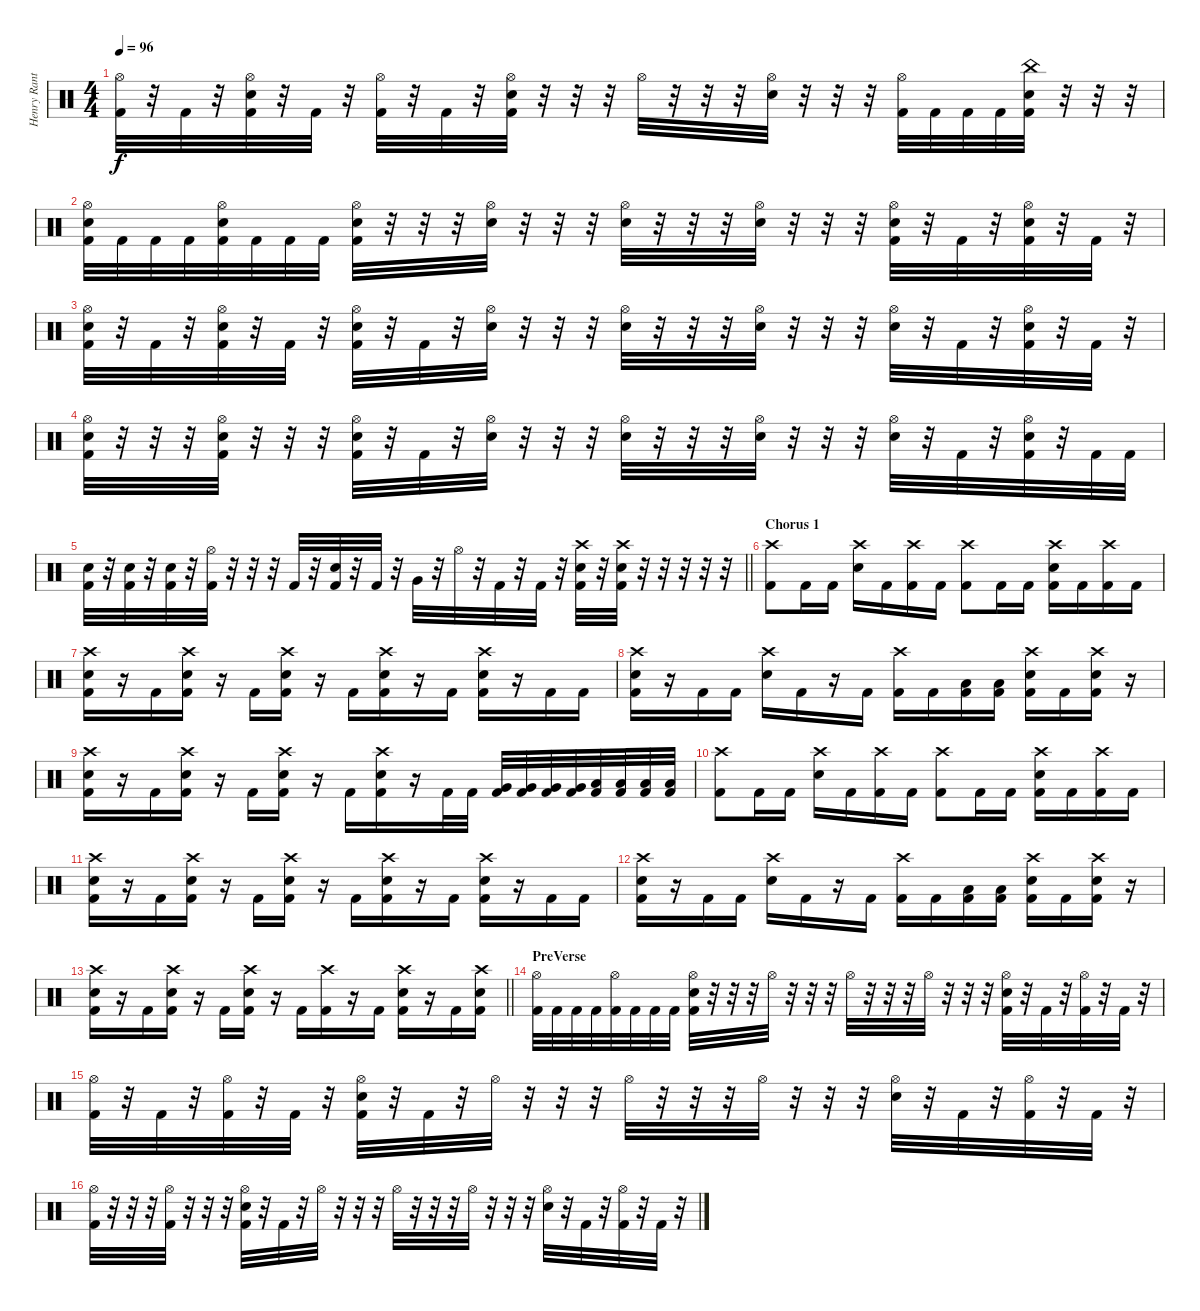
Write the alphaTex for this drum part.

\track ("Henry Ranta (Drumms)" "Henry Rant") {instrument percussion}
\staff {score}
\articulation defaults
\ts (4 4)
\tempo 96
\clef neutral
\ks c
("Hi-Hat (open)" "Kick (hit) 2").32{dy f} r.32 "Kick (hit) 2".32 r.32 ("Hi-Hat (open)" "Snare (hit) 2" "Kick (hit) 2").32 r.32 "Kick (hit) 2".32 r.32 ("Hi-Hat (open)" "Kick (hit) 2").32 r.32 "Kick (hit) 2".32 r.32 ("Hi-Hat (open)" "Snare (hit) 2" "Kick (hit) 2").32 r.32 r.32 r.32 "Hi-Hat (open)".32 r.32 r.32 r.32 ("Hi-Hat (open)" "Snare (hit) 2").32 r.32 r.32 r.32 ("Hi-Hat (open)" "Kick (hit) 2").32 "Kick (hit) 2".32 "Kick (hit) 2".32 "Kick (hit) 2".32 ("China (hit)" "Snare (hit) 2" "Kick (hit) 2").32 r.32 r.32 r.32 |
("Hi-Hat (open)" "Snare (hit) 2" "Kick (hit) 2").32 "Kick (hit) 2".32 "Kick (hit) 2".32 "Kick (hit) 2".32 ("Hi-Hat (open)" "Snare (hit) 2" "Kick (hit) 2").32 "Kick (hit) 2".32 "Kick (hit) 2".32 "Kick (hit) 2".32 ("Hi-Hat (open)" "Snare (hit) 2" "Kick (hit) 2").32 r.32 r.32 r.32 ("Hi-Hat (open)" "Snare (hit) 2").32 r.32 r.32 r.32 ("Hi-Hat (open)" "Snare (hit) 2").32 r.32 r.32 r.32 ("Hi-Hat (open)" "Snare (hit) 2").32 r.32 r.32 r.32 ("Hi-Hat (open)" "Snare (hit) 2" "Kick (hit) 2").32 r.32 "Kick (hit) 2".32 r.32 ("Hi-Hat (open)" "Snare (hit) 2" "Kick (hit) 2").32 r.32 "Kick (hit) 2".32 r.32 |
("Hi-Hat (open)" "Snare (hit) 2" "Kick (hit) 2").32 r.32 "Kick (hit) 2".32 r.32 ("Hi-Hat (open)" "Snare (hit) 2" "Kick (hit) 2").32 r.32 "Kick (hit) 2".32 r.32 ("Hi-Hat (open)" "Snare (hit) 2" "Kick (hit) 2").32 r.32 "Kick (hit) 2".32 r.32 ("Hi-Hat (open)" "Snare (hit) 2").32 r.32 r.32 r.32 ("Hi-Hat (open)" "Snare (hit) 2").32 r.32 r.32 r.32 ("Hi-Hat (open)" "Snare (hit) 2").32 r.32 r.32 r.32 ("Hi-Hat (open)" "Snare (hit) 2").32 r.32 "Kick (hit) 2".32 r.32 ("Hi-Hat (open)" "Snare (hit) 2" "Kick (hit) 2").32 r.32 "Kick (hit) 2".32 r.32 |
("Hi-Hat (open)" "Snare (hit) 2" "Kick (hit) 2").32 r.32 r.32 r.32 ("Hi-Hat (open)" "Snare (hit) 2" "Kick (hit) 2").32 r.32 r.32 r.32 ("Hi-Hat (open)" "Snare (hit) 2" "Kick (hit) 2").32 r.32 "Kick (hit) 2".32 r.32 ("Hi-Hat (open)" "Snare (hit) 2").32 r.32 r.32 r.32 ("Hi-Hat (open)" "Snare (hit) 2").32 r.32 r.32 r.32 ("Hi-Hat (open)" "Snare (hit) 2").32 r.32 r.32 r.32 ("Hi-Hat (open)" "Snare (hit) 2").32 r.32 "Kick (hit) 2".32 r.32 ("Hi-Hat (open)" "Snare (hit) 2" "Kick (hit) 2").32 r.32 "Kick (hit) 2".32 "Kick (hit) 2".32 |
\barLineRight lightlight
("Snare (hit) 2" "Kick (hit) 2").32 r.32 ("Snare (hit) 2" "Kick (hit) 2").32 r.32 ("Snare (hit) 2" "Kick (hit) 2").32 r.32 ("Hi-Hat (open)" "Kick (hit) 2").32 r.32 r.32 r.32 "Kick (hit) 2".32 r.32 ("Snare (hit) 2" "Kick (hit) 2").32 r.32 "Kick (hit) 2".32 r.32 "Very Low Tom (hit)".32 r.32 "Hi-Hat (open)".32 r.32 "Kick (hit) 2".32 r.32 "Kick (hit) 2".32 r.32 ("Crash high (hit)" "Snare (hit) 2" "Kick (hit) 2").32 r.32 ("Crash high (hit)" "Snare (hit) 2" "Kick (hit) 2").32 r.32 r.32 r.32 r.32 r.32 |
\section ("" "Chorus 1")
("Crash high (hit)" "Kick (hit) 2").8 "Kick (hit) 2".16 "Kick (hit) 2".16 ("Crash high (hit)" "Snare (hit) 2").16 "Kick (hit) 2".16 ("Crash high (hit)" "Kick (hit) 2").16 "Kick (hit) 2".16 ("Crash high (hit)" "Kick (hit) 2").8 "Kick (hit) 2".16 "Kick (hit) 2".16 ("Crash high (hit)" "Snare (hit) 2" "Kick (hit) 2").16 "Kick (hit) 2".16 ("Crash high (hit)" "Kick (hit) 2").16 "Kick (hit) 2".16 |
("Crash high (hit)" "Snare (hit) 2" "Kick (hit) 2").16 r.16 "Kick (hit) 2".16 ("Crash high (hit)" "Snare (hit) 2" "Kick (hit) 2").16 r.16 "Kick (hit) 2".16 ("Crash high (hit)" "Snare (hit) 2" "Kick (hit) 2").16 r.16 "Kick (hit) 2".16 ("Crash high (hit)" "Snare (hit) 2" "Kick (hit) 2").16 r.16 "Kick (hit) 2".16 ("Crash high (hit)" "Snare (hit) 2" "Kick (hit) 2").16 r.16 "Kick (hit) 2".16 "Kick (hit) 2".16 |
("Crash high (hit)" "Snare (hit) 2" "Kick (hit) 2").16 r.16 "Kick (hit) 2".16 "Kick (hit) 2".16 ("Crash high (hit)" "Snare (hit) 2").16 "Kick (hit) 2".16 r.16 "Kick (hit) 2".16 ("Crash high (hit)" "Kick (hit) 2").16 "Kick (hit) 2".16 ("Low Floor Tom (hit)" "Kick (hit) 2").16 ("Low Floor Tom (hit)" "Kick (hit) 2").16 ("Crash high (hit)" "Snare (hit) 2" "Kick (hit) 2").16 "Kick (hit) 2".16 ("Crash high (hit)" "Snare (hit) 2" "Kick (hit) 2").16 r.16 |
("Crash high (hit)" "Snare (hit) 2" "Kick (hit) 2").16 r.16 "Kick (hit) 2".16 ("Crash high (hit)" "Snare (hit) 2" "Kick (hit) 2").16 r.16 "Kick (hit) 2".16 ("Crash high (hit)" "Snare (hit) 2" "Kick (hit) 2").16 r.16 "Kick (hit) 2".16 ("Crash high (hit)" "Snare (hit) 2" "Kick (hit) 2").16 r.16 "Kick (hit) 2".32 "Kick (hit) 2".32 ("Very Low Tom (hit)" "Kick (hit) 2").32 ("Very Low Tom (hit)" "Kick (hit) 2").32 ("Very Low Tom (hit)" "Kick (hit) 2").32 ("Very Low Tom (hit)" "Kick (hit) 2").32 ("Low Floor Tom (hit)" "Kick (hit) 2").32 ("Low Floor Tom (hit)" "Kick (hit) 2").32 ("Low Floor Tom (hit)" "Kick (hit) 2").32 ("Low Floor Tom (hit)" "Kick (hit) 2").32 |
("Crash high (hit)" "Kick (hit) 2").8 "Kick (hit) 2".16 "Kick (hit) 2".16 ("Crash high (hit)" "Snare (hit) 2").16 "Kick (hit) 2".16 ("Crash high (hit)" "Kick (hit) 2").16 "Kick (hit) 2".16 ("Crash high (hit)" "Kick (hit) 2").8 "Kick (hit) 2".16 "Kick (hit) 2".16 ("Crash high (hit)" "Snare (hit) 2" "Kick (hit) 2").16 "Kick (hit) 2".16 ("Crash high (hit)" "Kick (hit) 2").16 "Kick (hit) 2".16 |
("Crash high (hit)" "Snare (hit) 2" "Kick (hit) 2").16 r.16 "Kick (hit) 2".16 ("Crash high (hit)" "Snare (hit) 2" "Kick (hit) 2").16 r.16 "Kick (hit) 2".16 ("Crash high (hit)" "Snare (hit) 2" "Kick (hit) 2").16 r.16 "Kick (hit) 2".16 ("Crash high (hit)" "Snare (hit) 2" "Kick (hit) 2").16 r.16 "Kick (hit) 2".16 ("Crash high (hit)" "Snare (hit) 2" "Kick (hit) 2").16 r.16 "Kick (hit) 2".16 "Kick (hit) 2".16 |
("Crash high (hit)" "Snare (hit) 2" "Kick (hit) 2").16 r.16 "Kick (hit) 2".16 "Kick (hit) 2".16 ("Crash high (hit)" "Snare (hit) 2").16 "Kick (hit) 2".16 r.16 "Kick (hit) 2".16 ("Crash high (hit)" "Kick (hit) 2").16 "Kick (hit) 2".16 ("Low Floor Tom (hit)" "Kick (hit) 2").16 ("Low Floor Tom (hit)" "Kick (hit) 2").16 ("Crash high (hit)" "Snare (hit) 2" "Kick (hit) 2").16 "Kick (hit) 2".16 ("Crash high (hit)" "Snare (hit) 2" "Kick (hit) 2").16 r.16 |
\barLineRight lightlight
("Crash high (hit)" "Snare (hit) 2" "Kick (hit) 2").16 r.16 "Kick (hit) 2".16 ("Crash high (hit)" "Snare (hit) 2" "Kick (hit) 2").16 r.16 "Kick (hit) 2".16 ("Crash high (hit)" "Snare (hit) 2" "Kick (hit) 2").16 r.16 "Kick (hit) 2".16 ("Crash high (hit)" "Kick (hit) 2").16 r.16 "Kick (hit) 2".16 ("Crash high (hit)" "Snare (hit) 2" "Kick (hit) 2").16 r.16 "Kick (hit) 2".16 ("Crash high (hit)" "Snare (hit) 2" "Kick (hit) 2").16 |
\section ("" "PreVerse")
("Hi-Hat (open)" "Kick (hit) 2").32 "Kick (hit) 2".32 "Kick (hit) 2".32 "Kick (hit) 2".32 ("Hi-Hat (open)" "Kick (hit) 2").32 "Kick (hit) 2".32 "Kick (hit) 2".32 "Kick (hit) 2".32 ("Hi-Hat (open)" "Snare (hit) 2" "Kick (hit) 2").32 r.32 r.32 r.32 "Hi-Hat (open)".32 r.32 r.32 r.32 "Hi-Hat (open)".32 r.32 r.32 r.32 "Hi-Hat (open)".32 r.32 r.32 r.32 ("Hi-Hat (open)" "Snare (hit) 2" "Kick (hit) 2").32 r.32 "Kick (hit) 2".32 r.32 ("Hi-Hat (open)" "Kick (hit) 2").32 r.32 "Kick (hit) 2".32 r.32 |
("Hi-Hat (open)" "Kick (hit) 2").32 r.32 "Kick (hit) 2".32 r.32 ("Hi-Hat (open)" "Kick (hit) 2").32 r.32 "Kick (hit) 2".32 r.32 ("Hi-Hat (open)" "Snare (hit) 2" "Kick (hit) 2").32 r.32 "Kick (hit) 2".32 r.32 "Hi-Hat (open)".32 r.32 r.32 r.32 "Hi-Hat (open)".32 r.32 r.32 r.32 "Hi-Hat (open)".32 r.32 r.32 r.32 ("Hi-Hat (open)" "Snare (hit) 2").32 r.32 "Kick (hit) 2".32 r.32 ("Hi-Hat (open)" "Kick (hit) 2").32 r.32 "Kick (hit) 2".32 r.32 |
("Hi-Hat (open)" "Kick (hit) 2").32 r.32 r.32 r.32 ("Hi-Hat (open)" "Kick (hit) 2").32 r.32 r.32 r.32 ("Hi-Hat (open)" "Snare (hit) 2" "Kick (hit) 2").32 r.32 "Kick (hit) 2".32 r.32 "Hi-Hat (open)".32 r.32 r.32 r.32 "Hi-Hat (open)".32 r.32 r.32 r.32 "Hi-Hat (open)".32 r.32 r.32 r.32 ("Hi-Hat (open)" "Snare (hit) 2").32 r.32 "Kick (hit) 2".32 r.32 ("Hi-Hat (open)" "Kick (hit) 2").32 r.32 "Kick (hit) 2".32 r.32
